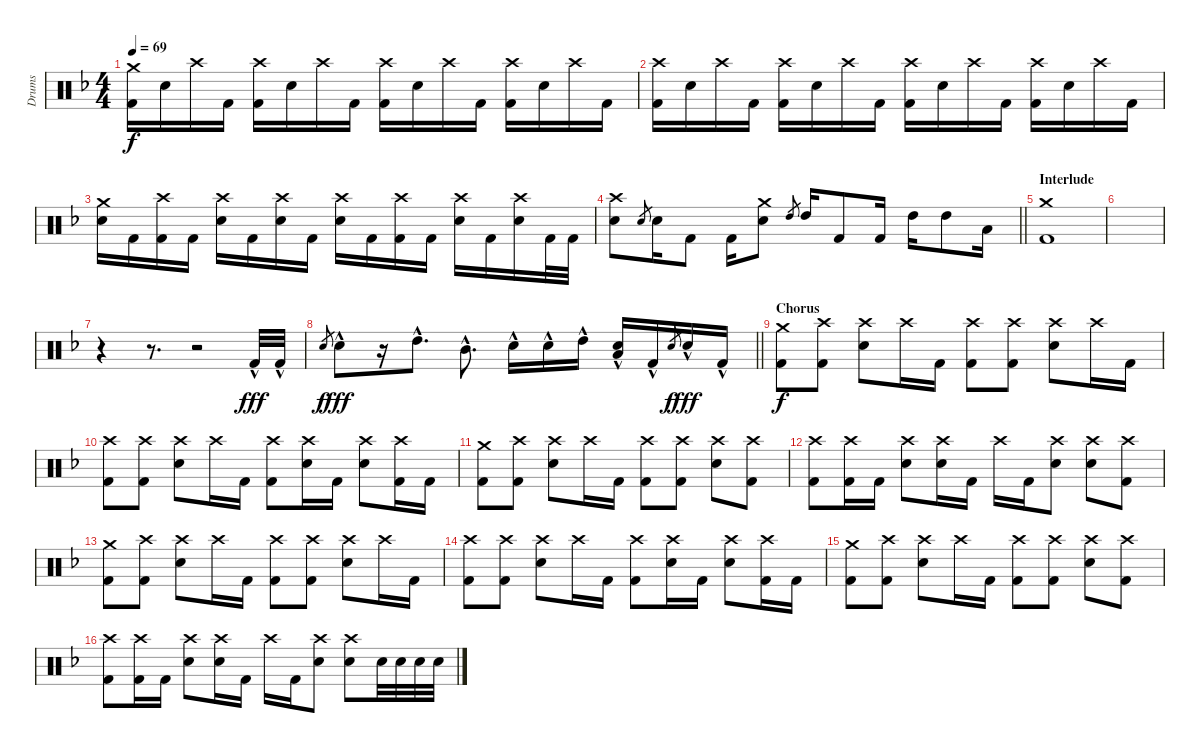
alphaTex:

\track ("Drums" "Drums") {instrument percussion}
\staff {score}
\articulation defaults
\ts (4 4)
\tempo 69
\clef neutral
\ks dminor
("Crash medium (hit)" "Kick (hit) 2").16{dy f} "Snare (hit) 2".16 "Crash high (hit)".16 "Kick (hit) 2".16 ("Crash high (hit)" "Kick (hit) 2").16 "Snare (hit) 2".16 "Crash high (hit)".16 "Kick (hit) 2".16 ("Crash high (hit)" "Kick (hit) 2").16 "Snare (hit) 2".16 "Crash high (hit)".16 "Kick (hit) 2".16 ("Crash high (hit)" "Kick (hit) 2").16 "Snare (hit) 2".16 "Crash high (hit)".16 "Kick (hit) 2".16 |
("Crash high (hit)" "Kick (hit) 2").16 "Snare (hit) 2".16 "Crash high (hit)".16 "Kick (hit) 2".16 ("Crash high (hit)" "Kick (hit) 2").16 "Snare (hit) 2".16 "Crash high (hit)".16 "Kick (hit) 2".16 ("Crash high (hit)" "Kick (hit) 2").16 "Snare (hit) 2".16 "Crash high (hit)".16 "Kick (hit) 2".16 ("Crash high (hit)" "Kick (hit) 2").16 "Snare (hit) 2".16 "Crash high (hit)".16 "Kick (hit) 2".16 |
("Crash medium (hit)" "Snare (hit) 2").16 "Kick (hit) 2".16 ("Crash high (hit)" "Kick (hit) 2").16 "Kick (hit) 2".16 ("Crash high (hit)" "Snare (hit) 2").16 "Kick (hit) 2".16 ("Crash high (hit)" "Snare (hit) 2").16 "Kick (hit) 2".16 ("Crash high (hit)" "Snare (hit) 2").16 "Kick (hit) 2".16 ("Crash high (hit)" "Kick (hit) 2").16 "Kick (hit) 2".16 ("Crash high (hit)" "Snare (hit) 2").16 "Kick (hit) 2".16 ("Crash high (hit)" "Snare (hit) 2").16 "Kick (hit) 2".32 "Kick (hit) 2".32 |
\barLineRight lightlight
("Crash high (hit)" "Snare (hit) 2").8 "Snare (hit) 2".8{gr} "Snare (hit) 2".16 "Kick (hit) 2".8 "Kick (hit) 2".16 ("Crash medium (hit)" "Snare (hit) 2").8 "High Tom (hit)".8{gr} "High Tom (hit)".16 "Kick (hit) 2".8 "Kick (hit) 2".16 "High Tom (hit)".16 "High Tom (hit)".8 "Low Floor Tom (hit)".16 |
\section ("" "Interlude")
("Crash medium (hit)" "Kick (hit) 2").1 |
|
r.4 r.8{d} r.2 "Kick (hit) 2"{hac}.32{dy fff} "Kick (hit) 2"{hac}.32 |
\barLineRight lightlight "Snare (hit) 2".8{gr dy f} "Snare (hit) 2"{hac}.8{dy fff}
r.16 "High Tom (hit)"{hac}.8{d} "Mid Tom (hit)"{hac}.8{d} "Snare (hit) 2"{hac}.16 "Snare (hit) 2"{hac}.16 "High Tom (hit)"{hac}.16 ("Low Floor Tom (hit)"{hac} "Snare (hit) 2"{hac}).16 "Kick (hit) 2"{hac}.16 "Snare (hit) 2".8{gr dy f} "Snare (hit) 2"{hac}.16{dy fff} "Kick (hit) 2"{hac}.16 |
\section ("" "Chorus")
("Crash medium (hit)" "Kick (hit) 2").8{dy f} ("Crash high (hit)" "Kick (hit) 2").8 ("Crash high (hit)" "Snare (hit) 2").8 "Crash high (hit)".16 "Kick (hit) 2".16 ("Crash high (hit)" "Kick (hit) 2").8 ("Crash high (hit)" "Kick (hit) 2").8 ("Crash high (hit)" "Snare (hit) 2").8 "Crash high (hit)".16 "Kick (hit) 2".16 |
("Crash high (hit)" "Kick (hit) 2").8 ("Crash high (hit)" "Kick (hit) 2").8 ("Crash high (hit)" "Snare (hit) 2").8 "Crash high (hit)".16 "Kick (hit) 2".16 ("Crash high (hit)" "Kick (hit) 2").8 ("Crash high (hit)" "Snare (hit) 2").16 "Kick (hit) 2".16 ("Crash high (hit)" "Snare (hit) 2").8 ("Crash high (hit)" "Kick (hit) 2").16 "Kick (hit) 2".16 |
("Crash medium (hit)" "Kick (hit) 2").8 ("Crash high (hit)" "Kick (hit) 2").8 ("Crash high (hit)" "Snare (hit) 2").8 "Crash high (hit)".16 "Kick (hit) 2".16 ("Crash high (hit)" "Kick (hit) 2").8 ("Crash high (hit)" "Kick (hit) 2").8 ("Crash high (hit)" "Snare (hit) 2").8 ("Crash high (hit)" "Kick (hit) 2").8 |
("Crash high (hit)" "Kick (hit) 2").8 ("Crash high (hit)" "Kick (hit) 2").16 "Kick (hit) 2".16 ("Crash high (hit)" "Snare (hit) 2").8 ("Crash high (hit)" "Snare (hit) 2").16 "Kick (hit) 2".16 "Crash high (hit)".16 "Kick (hit) 2".16 ("Crash high (hit)" "Snare (hit) 2").8 ("Crash high (hit)" "Snare (hit) 2").8 ("Crash high (hit)" "Kick (hit) 2").8 |
("Crash medium (hit)" "Kick (hit) 2").8 ("Crash high (hit)" "Kick (hit) 2").8 ("Crash high (hit)" "Snare (hit) 2").8 "Crash high (hit)".16 "Kick (hit) 2".16 ("Crash high (hit)" "Kick (hit) 2").8 ("Crash high (hit)" "Kick (hit) 2").8 ("Crash high (hit)" "Snare (hit) 2").8 "Crash high (hit)".16 "Kick (hit) 2".16 |
("Crash high (hit)" "Kick (hit) 2").8 ("Crash high (hit)" "Kick (hit) 2").8 ("Crash high (hit)" "Snare (hit) 2").8 "Crash high (hit)".16 "Kick (hit) 2".16 ("Crash high (hit)" "Kick (hit) 2").8 ("Crash high (hit)" "Snare (hit) 2").16 "Kick (hit) 2".16 ("Crash high (hit)" "Snare (hit) 2").8 ("Crash high (hit)" "Kick (hit) 2").16 "Kick (hit) 2".16 |
("Crash medium (hit)" "Kick (hit) 2").8 ("Crash high (hit)" "Kick (hit) 2").8 ("Crash high (hit)" "Snare (hit) 2").8 "Crash high (hit)".16 "Kick (hit) 2".16 ("Crash high (hit)" "Kick (hit) 2").8 ("Crash high (hit)" "Kick (hit) 2").8 ("Crash high (hit)" "Snare (hit) 2").8 ("Crash high (hit)" "Kick (hit) 2").8 |
("Crash high (hit)" "Kick (hit) 2").8 ("Crash high (hit)" "Kick (hit) 2").16 "Kick (hit) 2".16 ("Crash high (hit)" "Snare (hit) 2").8 ("Crash high (hit)" "Snare (hit) 2").16 "Kick (hit) 2".16 "Crash high (hit)".16 "Kick (hit) 2".16 ("Crash high (hit)" "Snare (hit) 2").8 ("Crash high (hit)" "Snare (hit) 2").8 "Snare (hit) 2".32 "Snare (hit) 2".32 "Snare (hit) 2".32 "Snare (hit) 2".32
